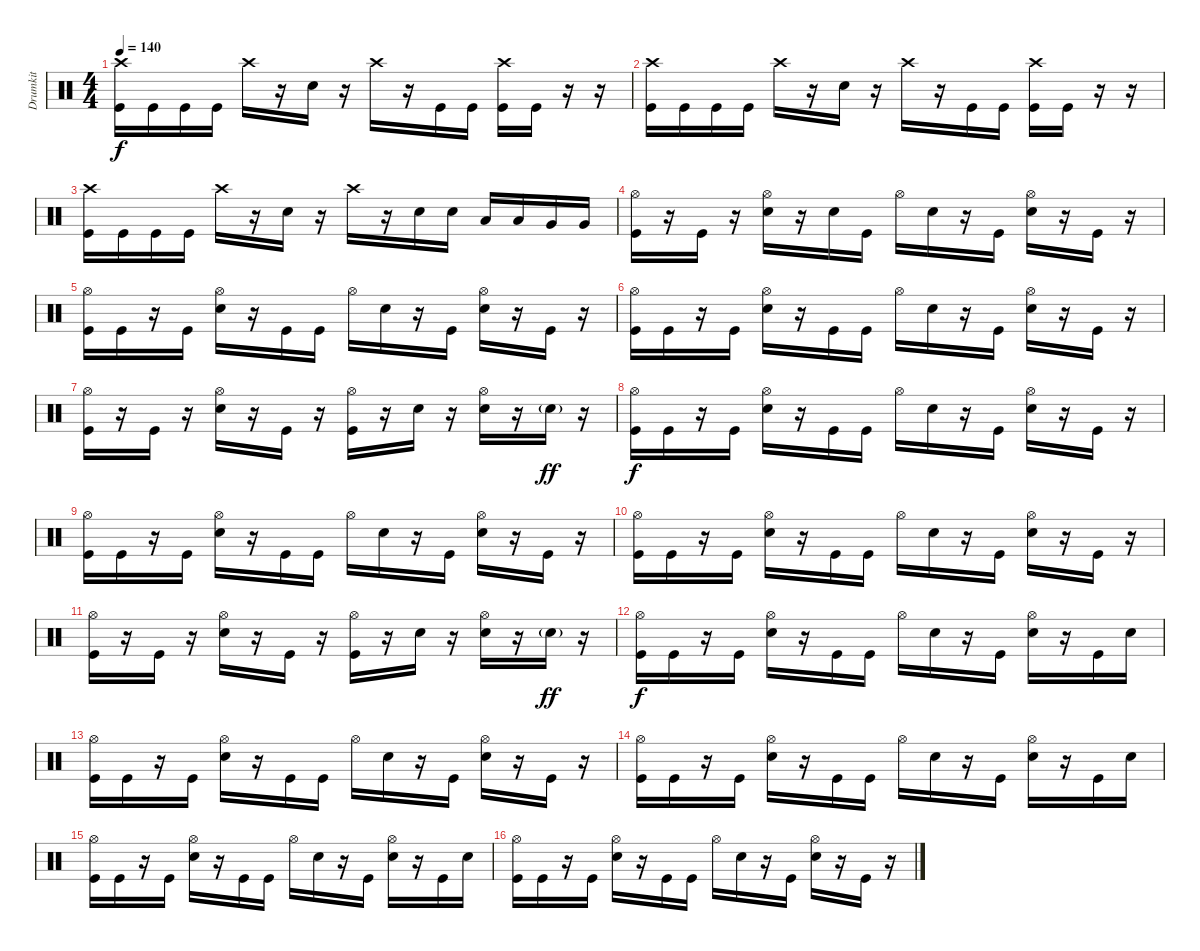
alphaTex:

\track ("Drumkit" "Drumkit") {instrument percussion}
\staff {score}
\articulation defaults
\ts (4 4)
\tempo 140
\clef neutral
\ks c
("Crash high (hit)" "Kick (hit)").16{dy f} "Kick (hit)".16 "Kick (hit)".16 "Kick (hit)".16 "Crash high (hit)".16 r.16 "Snare (hit) 2".16 r.16 "Crash high (hit)".16 r.16 "Kick (hit)".16 "Kick (hit)".16 ("Crash high (hit)" "Kick (hit)").16 "Kick (hit)".16 r.16 r.16 |
("Crash high (hit)" "Kick (hit)").16 "Kick (hit)".16 "Kick (hit)".16 "Kick (hit)".16 "Crash high (hit)".16 r.16 "Snare (hit) 2".16 r.16 "Crash high (hit)".16 r.16 "Kick (hit)".16 "Kick (hit)".16 ("Crash high (hit)" "Kick (hit)").16 "Kick (hit)".16 r.16 r.16 |
("Crash high (hit)" "Kick (hit)").16 "Kick (hit)".16 "Kick (hit)".16 "Kick (hit)".16 "Crash high (hit)".16 r.16 "Snare (hit) 2".16 r.16 "Crash high (hit)".16 r.16 "Snare (hit) 2".16 "Snare (hit) 2".16 "Low Tom (hit)".16 "Low Tom (hit)".16 "Very Low Tom (hit)".16 "Very Low Tom (hit)".16 |
("Hi-Hat (open)" "Kick (hit)").16 r.16 "Kick (hit)".16 r.16 ("Hi-Hat (open)" "Snare (hit) 2").16 r.16 "Snare (hit) 2".16 "Kick (hit)".16 "Hi-Hat (open)".16 "Snare (hit) 2".16 r.16 "Kick (hit)".16 ("Hi-Hat (open)" "Snare (hit) 2").16 r.16 "Kick (hit)".16 r.16 |
("Hi-Hat (open)" "Kick (hit)").16 "Kick (hit)".16 r.16 "Kick (hit)".16 ("Hi-Hat (open)" "Snare (hit) 2").16 r.16 "Kick (hit)".16 "Kick (hit)".16 "Hi-Hat (open)".16 "Snare (hit) 2".16 r.16 "Kick (hit)".16 ("Hi-Hat (open)" "Snare (hit) 2").16 r.16 "Kick (hit)".16 r.16 |
("Hi-Hat (open)" "Kick (hit)").16 "Kick (hit)".16 r.16 "Kick (hit)".16 ("Hi-Hat (open)" "Snare (hit) 2").16 r.16 "Kick (hit)".16 "Kick (hit)".16 "Hi-Hat (open)".16 "Snare (hit) 2".16 r.16 "Kick (hit)".16 ("Hi-Hat (open)" "Snare (hit) 2").16 r.16 "Kick (hit)".16 r.16 |
("Hi-Hat (open)" "Kick (hit)").16 r.16 "Kick (hit)".16 r.16 ("Hi-Hat (open)" "Snare (hit) 2").16 r.16 "Kick (hit)".16 r.16 ("Hi-Hat (open)" "Kick (hit)").16 r.16 "Snare (hit) 2".16 r.16 ("Hi-Hat (open)" "Snare (hit) 2").16 r.16 "Snare (hit) 2"{g}.16{dy ff} r.16 |
("Hi-Hat (open)" "Kick (hit)").16{dy f} "Kick (hit)".16 r.16 "Kick (hit)".16 ("Hi-Hat (open)" "Snare (hit) 2").16 r.16 "Kick (hit)".16 "Kick (hit)".16 "Hi-Hat (open)".16 "Snare (hit) 2".16 r.16 "Kick (hit)".16 ("Hi-Hat (open)" "Snare (hit) 2").16 r.16 "Kick (hit)".16 r.16 |
("Hi-Hat (open)" "Kick (hit)").16 "Kick (hit)".16 r.16 "Kick (hit)".16 ("Hi-Hat (open)" "Snare (hit) 2").16 r.16 "Kick (hit)".16 "Kick (hit)".16 "Hi-Hat (open)".16 "Snare (hit) 2".16 r.16 "Kick (hit)".16 ("Hi-Hat (open)" "Snare (hit) 2").16 r.16 "Kick (hit)".16 r.16 |
("Hi-Hat (open)" "Kick (hit)").16 "Kick (hit)".16 r.16 "Kick (hit)".16 ("Hi-Hat (open)" "Snare (hit) 2").16 r.16 "Kick (hit)".16 "Kick (hit)".16 "Hi-Hat (open)".16 "Snare (hit) 2".16 r.16 "Kick (hit)".16 ("Hi-Hat (open)" "Snare (hit) 2").16 r.16 "Kick (hit)".16 r.16 |
("Hi-Hat (open)" "Kick (hit)").16 r.16 "Kick (hit)".16 r.16 ("Hi-Hat (open)" "Snare (hit) 2").16 r.16 "Kick (hit)".16 r.16 ("Hi-Hat (open)" "Kick (hit)").16 r.16 "Snare (hit) 2".16 r.16 ("Hi-Hat (open)" "Snare (hit) 2").16 r.16 "Snare (hit) 2"{g}.16{dy ff} r.16 |
("Hi-Hat (open)" "Kick (hit)").16{dy f} "Kick (hit)".16 r.16 "Kick (hit)".16 ("Hi-Hat (open)" "Snare (hit) 2").16 r.16 "Kick (hit)".16 "Kick (hit)".16 "Hi-Hat (open)".16 "Snare (hit) 2".16 r.16 "Kick (hit)".16 ("Hi-Hat (open)" "Snare (hit) 2").16 r.16 "Kick (hit)".16 "Snare (hit) 2".16 |
("Hi-Hat (open)" "Kick (hit)").16 "Kick (hit)".16 r.16 "Kick (hit)".16 ("Hi-Hat (open)" "Snare (hit) 2").16 r.16 "Kick (hit)".16 "Kick (hit)".16 "Hi-Hat (open)".16 "Snare (hit) 2".16 r.16 "Kick (hit)".16 ("Hi-Hat (open)" "Snare (hit) 2").16 r.16 "Kick (hit)".16 r.16 |
("Hi-Hat (open)" "Kick (hit)").16 "Kick (hit)".16 r.16 "Kick (hit)".16 ("Hi-Hat (open)" "Snare (hit) 2").16 r.16 "Kick (hit)".16 "Kick (hit)".16 "Hi-Hat (open)".16 "Snare (hit) 2".16 r.16 "Kick (hit)".16 ("Hi-Hat (open)" "Snare (hit) 2").16 r.16 "Kick (hit)".16 "Snare (hit) 2".16 |
("Hi-Hat (open)" "Kick (hit)").16 "Kick (hit)".16 r.16 "Kick (hit)".16 ("Hi-Hat (open)" "Snare (hit) 2").16 r.16 "Kick (hit)".16 "Kick (hit)".16 "Hi-Hat (open)".16 "Snare (hit) 2".16 r.16 "Kick (hit)".16 ("Hi-Hat (open)" "Snare (hit) 2").16 r.16 "Kick (hit)".16 "Snare (hit) 2".16 |
("Hi-Hat (open)" "Kick (hit)").16 "Kick (hit)".16 r.16 "Kick (hit)".16 ("Hi-Hat (open)" "Snare (hit) 2").16 r.16 "Kick (hit)".16 "Kick (hit)".16 "Hi-Hat (open)".16 "Snare (hit) 2".16 r.16 "Kick (hit)".16 ("Hi-Hat (open)" "Snare (hit) 2").16 r.16 "Kick (hit)".16 r.16
